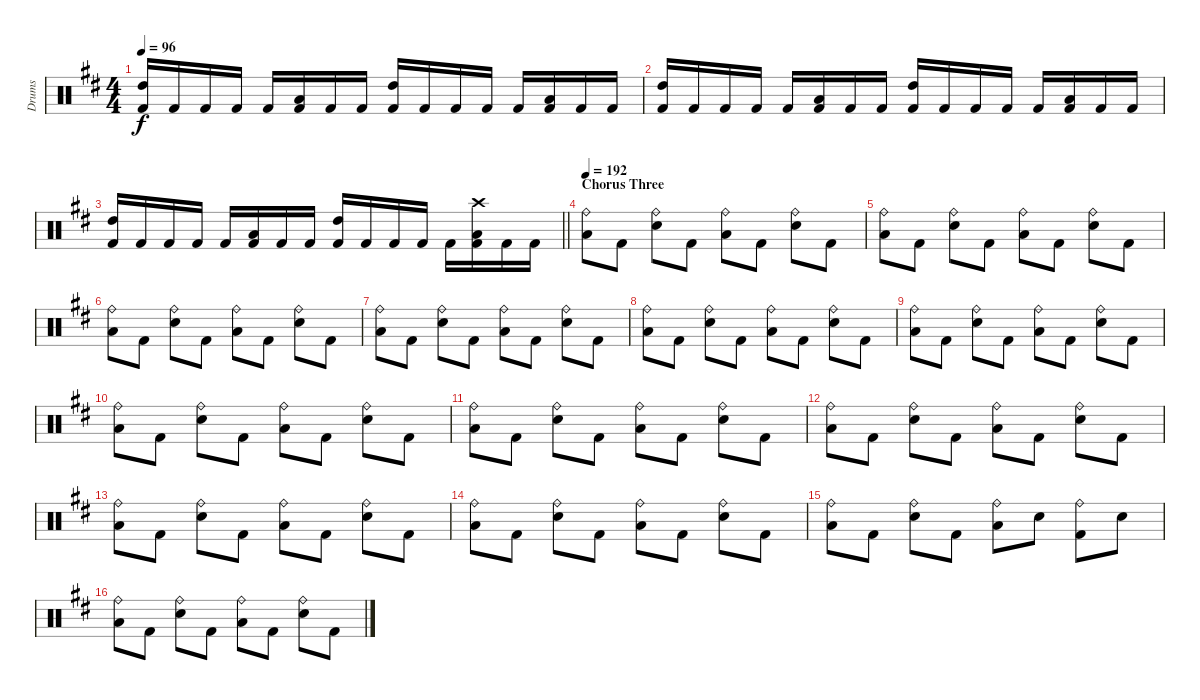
\track ("Drums" "Drums") {instrument percussion}
\staff {score}
\articulation defaults
\ts (4 4)
\tempo 96
\clef neutral
\ks d
("High Tom (hit)" "Kick (hit) 2").16{dy f} "Kick (hit) 2".16 "Kick (hit) 2".16 "Kick (hit) 2".16 "Kick (hit) 2".16 ("Low Tom (hit)" "Kick (hit) 2").16 "Kick (hit) 2".16 "Kick (hit) 2".16 ("High Tom (hit)" "Kick (hit) 2").16 "Kick (hit) 2".16 "Kick (hit) 2".16 "Kick (hit) 2".16 "Kick (hit) 2".16 ("Low Tom (hit)" "Kick (hit) 2").16 "Kick (hit) 2".16 "Kick (hit) 2".16 |
("High Tom (hit)" "Kick (hit) 2").16 "Kick (hit) 2".16 "Kick (hit) 2".16 "Kick (hit) 2".16 "Kick (hit) 2".16 ("Low Tom (hit)" "Kick (hit) 2").16 "Kick (hit) 2".16 "Kick (hit) 2".16 ("High Tom (hit)" "Kick (hit) 2").16 "Kick (hit) 2".16 "Kick (hit) 2".16 "Kick (hit) 2".16 "Kick (hit) 2".16 ("Low Tom (hit)" "Kick (hit) 2").16 "Kick (hit) 2".16 "Kick (hit) 2".16 |
\barLineRight lightlight
("High Tom (hit)" "Kick (hit) 2").16 "Kick (hit) 2".16 "Kick (hit) 2".16 "Kick (hit) 2".16 "Kick (hit) 2".16 ("Low Tom (hit)" "Kick (hit) 2").16 "Kick (hit) 2".16 "Kick (hit) 2".16 ("High Tom (hit)" "Kick (hit) 2").16 "Kick (hit) 2".16 "Kick (hit) 2".16 "Kick (hit) 2".16 "Kick (hit) 2".16 ("Crash high (hit)" "Low Tom (hit)" "Kick (hit) 2").16 "Kick (hit) 2".16 "Kick (hit) 2".16 |
\section ("" "Chorus Three")
\tempo 192
("Ride (bell)" "Low Tom (hit)").8 "Kick (hit) 2".8 ("Ride (bell)" "Snare (hit) 2").8 "Kick (hit) 2".8 ("Ride (bell)" "Low Tom (hit)").8 "Kick (hit) 2".8 ("Ride (bell)" "Snare (hit) 2").8 "Kick (hit) 2".8 |
("Ride (bell)" "Low Tom (hit)").8 "Kick (hit) 2".8 ("Ride (bell)" "Snare (hit) 2").8 "Kick (hit) 2".8 ("Ride (bell)" "Low Tom (hit)").8 "Kick (hit) 2".8 ("Ride (bell)" "Snare (hit) 2").8 "Kick (hit) 2".8 |
("Ride (bell)" "Low Tom (hit)").8 "Kick (hit) 2".8 ("Ride (bell)" "Snare (hit) 2").8 "Kick (hit) 2".8 ("Ride (bell)" "Low Tom (hit)").8 "Kick (hit) 2".8 ("Ride (bell)" "Snare (hit) 2").8 "Kick (hit) 2".8 |
("Ride (bell)" "Low Tom (hit)").8 "Kick (hit) 2".8 ("Ride (bell)" "Snare (hit) 2").8 "Kick (hit) 2".8 ("Ride (bell)" "Low Tom (hit)").8 "Kick (hit) 2".8 ("Ride (bell)" "Snare (hit) 2").8 "Kick (hit) 2".8 |
("Ride (bell)" "Low Tom (hit)").8 "Kick (hit) 2".8 ("Ride (bell)" "Snare (hit) 2").8 "Kick (hit) 2".8 ("Ride (bell)" "Low Tom (hit)").8 "Kick (hit) 2".8 ("Ride (bell)" "Snare (hit) 2").8 "Kick (hit) 2".8 |
("Ride (bell)" "Low Tom (hit)").8 "Kick (hit) 2".8 ("Ride (bell)" "Snare (hit) 2").8 "Kick (hit) 2".8 ("Ride (bell)" "Low Tom (hit)").8 "Kick (hit) 2".8 ("Ride (bell)" "Snare (hit) 2").8 "Kick (hit) 2".8 |
("Ride (bell)" "Low Tom (hit)").8 "Kick (hit) 2".8 ("Ride (bell)" "Snare (hit) 2").8 "Kick (hit) 2".8 ("Ride (bell)" "Low Tom (hit)").8 "Kick (hit) 2".8 ("Ride (bell)" "Snare (hit) 2").8 "Kick (hit) 2".8 |
("Ride (bell)" "Low Tom (hit)").8 "Kick (hit) 2".8 ("Ride (bell)" "Snare (hit) 2").8 "Kick (hit) 2".8 ("Ride (bell)" "Low Tom (hit)").8 "Kick (hit) 2".8 ("Ride (bell)" "Snare (hit) 2").8 "Kick (hit) 2".8 |
("Ride (bell)" "Low Tom (hit)").8 "Kick (hit) 2".8 ("Ride (bell)" "Snare (hit) 2").8 "Kick (hit) 2".8 ("Ride (bell)" "Low Tom (hit)").8 "Kick (hit) 2".8 ("Ride (bell)" "Snare (hit) 2").8 "Kick (hit) 2".8 |
("Ride (bell)" "Low Tom (hit)").8 "Kick (hit) 2".8 ("Ride (bell)" "Snare (hit) 2").8 "Kick (hit) 2".8 ("Ride (bell)" "Low Tom (hit)").8 "Kick (hit) 2".8 ("Ride (bell)" "Snare (hit) 2").8 "Kick (hit) 2".8 |
("Ride (bell)" "Low Tom (hit)").8 "Kick (hit) 2".8 ("Ride (bell)" "Snare (hit) 2").8 "Kick (hit) 2".8 ("Ride (bell)" "Low Tom (hit)").8 "Kick (hit) 2".8 ("Ride (bell)" "Snare (hit) 2").8 "Kick (hit) 2".8 |
("Ride (bell)" "Low Tom (hit)").8 "Kick (hit) 2".8 ("Ride (bell)" "Snare (hit) 2").8 "Kick (hit) 2".8 ("Ride (bell)" "Low Tom (hit)").8 "Snare (hit) 2".8 ("Ride (bell)" "Kick (hit) 2").8 "Snare (hit) 2".8 |
("Ride (bell)" "Low Tom (hit)").8 "Kick (hit) 2".8 ("Ride (bell)" "Snare (hit) 2").8 "Kick (hit) 2".8 ("Ride (bell)" "Low Tom (hit)").8 "Kick (hit) 2".8 ("Ride (bell)" "Snare (hit) 2").8 "Kick (hit) 2".8
